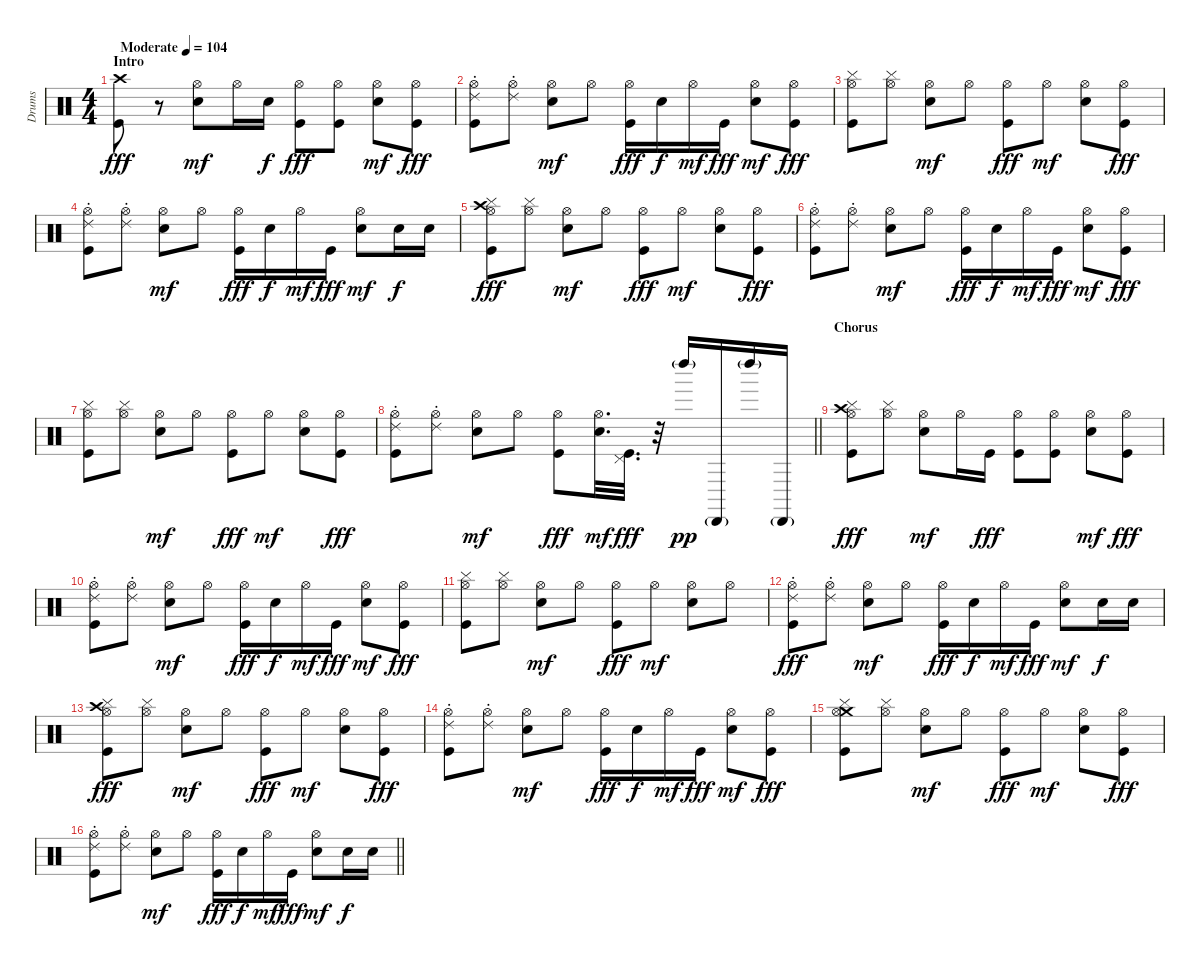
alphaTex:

\track ("Drums" "Drums") {instrument percussion}
\staff {score}
\articulation defaults
\ts (4 4)
\section ("" "Intro")
\tempo (104 "Moderate")
\clef neutral
\ks c
("Crash high (hit)" "Kick (hit)").8{dy fff} r.8 ("Hi-Hat (open)" "Electric Snare (hit)").8{dy mf} "Hi-Hat (open)".16 "Electric Snare (hit)".16{dy f} ("Hi-Hat (open)" "Kick (hit)").8{dy fff} ("Hi-Hat (open)" "Kick (hit)").8 ("Hi-Hat (open)" "Electric Snare (hit)").8{dy mf} ("Hi-Hat (open)" "Kick (hit)").8{dy fff} |
("Hi-Hat (open)" "Ride (choke) 2" "Kick (hit)").8 ("Hi-Hat (open)" "Ride (choke) 2").8 ("Hi-Hat (open)" "Electric Snare (hit)").8{dy mf} "Hi-Hat (open)".8 ("Hi-Hat (open)" "Kick (hit)").16{dy fff} "Electric Snare (hit)".16{dy f} "Hi-Hat (open)".16{dy mf} "Kick (hit)".16{dy fff} ("Hi-Hat (open)" "Electric Snare (hit)").8{dy mf} ("Hi-Hat (open)" "Kick (hit)").8{dy fff} |
("Hi-Hat (open)" "Cymbal (hit)" "Kick (hit)").8 ("Hi-Hat (open)" "Cymbal (hit)").8 ("Hi-Hat (open)" "Electric Snare (hit)").8{dy mf} "Hi-Hat (open)".8 ("Hi-Hat (open)" "Kick (hit)").8{dy fff} "Hi-Hat (open)".8{dy mf} ("Hi-Hat (open)" "Electric Snare (hit)").8 ("Hi-Hat (open)" "Kick (hit)").8{dy fff} |
("Hi-Hat (open)" "Ride (choke) 2" "Kick (hit)").8 ("Hi-Hat (open)" "Ride (choke) 2").8 ("Hi-Hat (open)" "Electric Snare (hit)").8{dy mf} "Hi-Hat (open)".8 ("Hi-Hat (open)" "Kick (hit)").16{dy fff} "Electric Snare (hit)".16{dy f} "Hi-Hat (open)".16{dy mf} "Kick (hit)".16{dy fff} ("Hi-Hat (open)" "Electric Snare (hit)").8{dy mf} "Electric Snare (hit)".16{dy f} "Electric Snare (hit)".16 |
("Crash high (hit)" "Hi-Hat (open)" "Cymbal (hit)" "Kick (hit)").8{dy fff} ("Hi-Hat (open)" "Cymbal (hit)").8 ("Hi-Hat (open)" "Electric Snare (hit)").8{dy mf} "Hi-Hat (open)".8 ("Hi-Hat (open)" "Kick (hit)").8{dy fff} "Hi-Hat (open)".8{dy mf} ("Hi-Hat (open)" "Electric Snare (hit)").8 ("Hi-Hat (open)" "Kick (hit)").8{dy fff} |
("Hi-Hat (open)" "Ride (choke) 2" "Kick (hit)").8 ("Hi-Hat (open)" "Ride (choke) 2").8 ("Hi-Hat (open)" "Electric Snare (hit)").8{dy mf} "Hi-Hat (open)".8 ("Hi-Hat (open)" "Kick (hit)").16{dy fff} "Electric Snare (hit)".16{dy f} "Hi-Hat (open)".16{dy mf} "Kick (hit)".16{dy fff} ("Hi-Hat (open)" "Electric Snare (hit)").8{dy mf} ("Hi-Hat (open)" "Kick (hit)").8{dy fff} |
("Hi-Hat (open)" "Cymbal (hit)" "Kick (hit)").8 ("Hi-Hat (open)" "Cymbal (hit)").8 ("Hi-Hat (open)" "Electric Snare (hit)").8{dy mf} "Hi-Hat (open)".8 ("Hi-Hat (open)" "Kick (hit)").8{dy fff} "Hi-Hat (open)".8{dy mf} ("Hi-Hat (open)" "Electric Snare (hit)").8 ("Hi-Hat (open)" "Kick (hit)").8{dy fff} |
\barLineRight lightlight
("Hi-Hat (open)" "Ride (choke) 2" "Kick (hit)").8 ("Hi-Hat (open)" "Ride (choke) 2").8 ("Hi-Hat (open)" "Electric Snare (hit)").8{dy mf} "Hi-Hat (open)".8 ("Hi-Hat (open)" "Kick (hit)").8{dy fff} ("Hi-Hat (open)" "Electric Snare (hit)").32{d dy mf} ("Pedal Hi-Hat (hit)" "Kick (hit)").32{d dy fff} r.32 "Left Maraca (hit)"{g}.16{dy pp} "Cabasa (hit)"{g}.16 "Left Maraca (hit)"{g}.16 "Cabasa (hit)"{g}.16 |
\section ("" "Chorus")
("Crash high (hit)" "Hi-Hat (open)" "Cymbal (hit)" "Kick (hit)").8{dy fff} ("Hi-Hat (open)" "Cymbal (hit)").8 ("Hi-Hat (open)" "Electric Snare (hit)").8{dy mf} "Hi-Hat (open)".16 "Kick (hit)".16{dy fff} ("Hi-Hat (open)" "Kick (hit)").8 ("Hi-Hat (open)" "Kick (hit)").8 ("Hi-Hat (open)" "Electric Snare (hit)").8{dy mf} ("Hi-Hat (open)" "Kick (hit)").8{dy fff} |
("Hi-Hat (open)" "Ride (choke) 2" "Kick (hit)").8 ("Hi-Hat (open)" "Ride (choke) 2").8 ("Hi-Hat (open)" "Electric Snare (hit)").8{dy mf} "Hi-Hat (open)".8 ("Hi-Hat (open)" "Kick (hit)").16{dy fff} "Electric Snare (hit)".16{dy f} "Hi-Hat (open)".16{dy mf} "Kick (hit)".16{dy fff} ("Hi-Hat (open)" "Electric Snare (hit)").8{dy mf} ("Hi-Hat (open)" "Kick (hit)").8{dy fff} |
("Hi-Hat (open)" "Cymbal (hit)" "Kick (hit)").8 ("Hi-Hat (open)" "Cymbal (hit)").8 ("Hi-Hat (open)" "Electric Snare (hit)").8{dy mf} "Hi-Hat (open)".8 ("Hi-Hat (open)" "Kick (hit)").8{dy fff} "Hi-Hat (open)".8{dy mf} ("Hi-Hat (open)" "Electric Snare (hit)").8 "Hi-Hat (open)".8 |
("Hi-Hat (open)" "Ride (choke) 2" "Kick (hit)").8{dy fff} ("Hi-Hat (open)" "Ride (choke) 2").8 ("Hi-Hat (open)" "Electric Snare (hit)").8{dy mf} "Hi-Hat (open)".8 ("Hi-Hat (open)" "Kick (hit)").16{dy fff} "Electric Snare (hit)".16{dy f} "Hi-Hat (open)".16{dy mf} "Kick (hit)".16{dy fff} ("Hi-Hat (open)" "Electric Snare (hit)").8{dy mf} "Electric Snare (hit)".16{dy f} "Electric Snare (hit)".16 |
("Crash high (hit)" "Hi-Hat (open)" "Cymbal (hit)" "Kick (hit)").8{dy fff} ("Hi-Hat (open)" "Cymbal (hit)").8 ("Hi-Hat (open)" "Electric Snare (hit)").8{dy mf} "Hi-Hat (open)".8 ("Hi-Hat (open)" "Kick (hit)").8{dy fff} "Hi-Hat (open)".8{dy mf} ("Hi-Hat (open)" "Electric Snare (hit)").8 ("Hi-Hat (open)" "Kick (hit)").8{dy fff} |
("Hi-Hat (open)" "Ride (choke) 2" "Kick (hit)").8 ("Hi-Hat (open)" "Ride (choke) 2").8 ("Hi-Hat (open)" "Electric Snare (hit)").8{dy mf} "Hi-Hat (open)".8 ("Hi-Hat (open)" "Kick (hit)").16{dy fff} "Electric Snare (hit)".16{dy f} "Hi-Hat (open)".16{dy mf} "Kick (hit)".16{dy fff} ("Hi-Hat (open)" "Electric Snare (hit)").8{dy mf} ("Hi-Hat (open)" "Kick (hit)").8{dy fff} |
("Crash medium (hit)" "Hi-Hat (open)" "Cymbal (hit)" "Kick (hit)").8 ("Hi-Hat (open)" "Cymbal (hit)").8 ("Hi-Hat (open)" "Electric Snare (hit)").8{dy mf} "Hi-Hat (open)".8 ("Hi-Hat (open)" "Kick (hit)").8{dy fff} "Hi-Hat (open)".8{dy mf} ("Hi-Hat (open)" "Electric Snare (hit)").8 ("Hi-Hat (open)" "Kick (hit)").8{dy fff} |
\barLineRight lightlight
("Hi-Hat (open)" "Ride (choke) 2" "Kick (hit)").8 ("Hi-Hat (open)" "Ride (choke) 2").8 ("Hi-Hat (open)" "Electric Snare (hit)").8{dy mf} "Hi-Hat (open)".8 ("Hi-Hat (open)" "Kick (hit)").16{dy fff} "Electric Snare (hit)".16{dy f} "Hi-Hat (open)".16{dy mf} "Kick (hit)".16{dy fff} ("Hi-Hat (open)" "Electric Snare (hit)").8{dy mf} "Electric Snare (hit)".16{dy f} "Electric Snare (hit)".16
